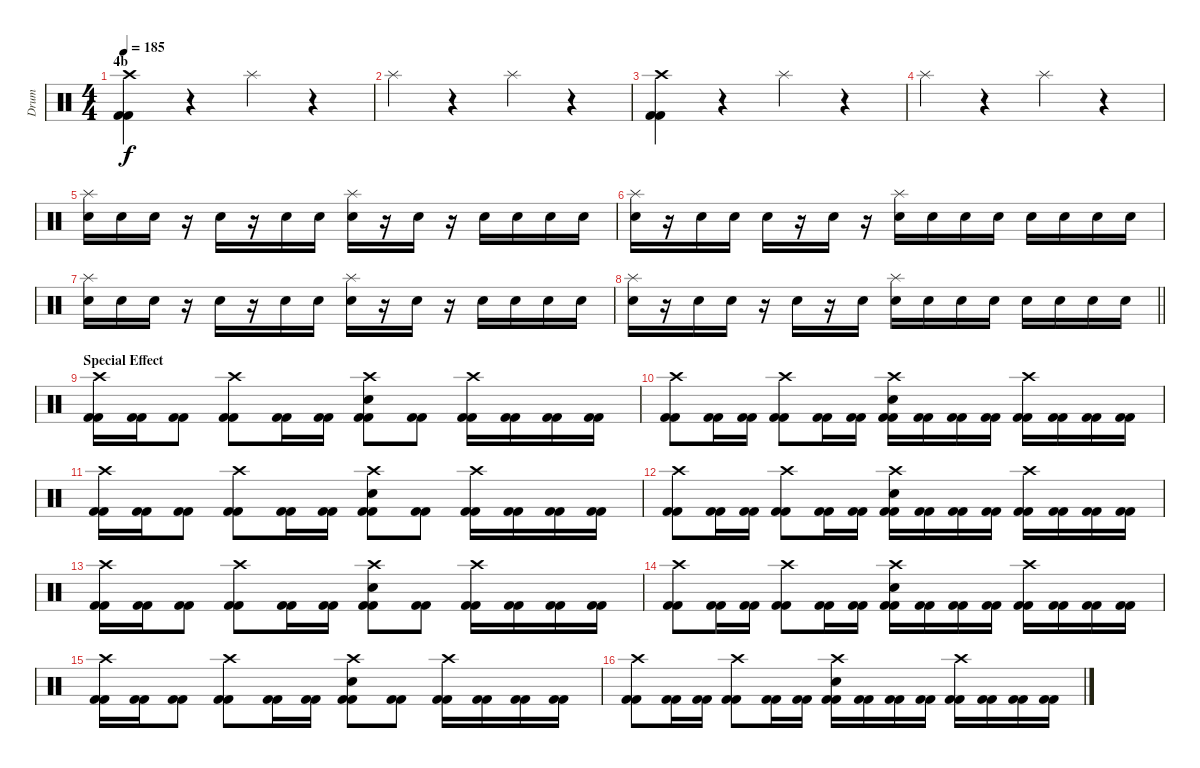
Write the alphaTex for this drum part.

\track ("Drum" "Drum") {instrument percussion}
\staff {score}
\articulation defaults
\ts (4 4)
\section ("" "4b")
\tempo 185
\clef neutral
\ks c
("Crash high (hit)" "Kick (hit) 2" "Kick (hit) 2").4{dy f} r.4 "Splash (hit)".4 r.4 |
"Splash (hit)".4 r.4 "Splash (hit)".4 r.4 |
("Crash high (hit)" "Kick (hit) 2" "Kick (hit) 2").4 r.4 "Splash (hit)".4 r.4 |
"Splash (hit)".4 r.4 "Splash (hit)".4 r.4 |
("Splash (hit)" "Electric Snare (hit)").16{volume 2} "Electric Snare (hit)".16 "Electric Snare (hit)".16 r.16 "Electric Snare (hit)".16 r.16 "Electric Snare (hit)".16 "Electric Snare (hit)".16 ("Splash (hit)" "Electric Snare (hit)").16{volume 4} r.16 "Electric Snare (hit)".16 r.16 "Electric Snare (hit)".16 "Electric Snare (hit)".16 "Electric Snare (hit)".16 "Electric Snare (hit)".16 |
("Splash (hit)" "Electric Snare (hit)").16{volume 6} r.16 "Electric Snare (hit)".16 "Electric Snare (hit)".16 "Electric Snare (hit)".16 r.16 "Electric Snare (hit)".16 r.16 ("Splash (hit)" "Electric Snare (hit)").16{volume 8} "Electric Snare (hit)".16 "Electric Snare (hit)".16 "Electric Snare (hit)".16 "Electric Snare (hit)".16 "Electric Snare (hit)".16 "Electric Snare (hit)".16 "Electric Snare (hit)".16 |
("Splash (hit)" "Electric Snare (hit)").16{volume 9} "Electric Snare (hit)".16 "Electric Snare (hit)".16 r.16 "Electric Snare (hit)".16 r.16 "Electric Snare (hit)".16 "Electric Snare (hit)".16 ("Splash (hit)" "Electric Snare (hit)").16{volume 11} r.16 "Electric Snare (hit)".16 r.16 "Electric Snare (hit)".16 "Electric Snare (hit)".16 "Electric Snare (hit)".16 "Electric Snare (hit)".16 |
\barLineRight lightlight
("Splash (hit)" "Electric Snare (hit)").16{volume 14} r.16 "Electric Snare (hit)".16 "Electric Snare (hit)".16 r.16 "Electric Snare (hit)".16 r.16 "Electric Snare (hit)".16 ("Splash (hit)" "Electric Snare (hit)").16 "Electric Snare (hit)".16 "Electric Snare (hit)".16 "Electric Snare (hit)".16 "Electric Snare (hit)".16 "Electric Snare (hit)".16 "Electric Snare (hit)".16 "Electric Snare (hit)".16 |
\section ("" "Special Effect")
("Crash high (hit)" "Kick (hit) 2" "Kick (hit) 2").16 ("Kick (hit) 2" "Kick (hit) 2").16 ("Kick (hit) 2" "Kick (hit) 2").8 ("Crash high (hit)" "Kick (hit) 2" "Kick (hit) 2").8 ("Kick (hit) 2" "Kick (hit) 2").16 ("Kick (hit) 2" "Kick (hit) 2").16 ("Crash high (hit)" "Electric Snare (hit)" "Kick (hit) 2" "Kick (hit) 2").8 ("Kick (hit) 2" "Kick (hit) 2").8 ("Crash high (hit)" "Kick (hit) 2" "Kick (hit) 2").16 ("Kick (hit) 2" "Kick (hit) 2").16 ("Kick (hit) 2" "Kick (hit) 2").16 ("Kick (hit) 2" "Kick (hit) 2").16 |
("Crash high (hit)" "Kick (hit) 2" "Kick (hit) 2").8 ("Kick (hit) 2" "Kick (hit) 2").16 ("Kick (hit) 2" "Kick (hit) 2").16 ("Crash high (hit)" "Kick (hit) 2" "Kick (hit) 2").8 ("Kick (hit) 2" "Kick (hit) 2").16 ("Kick (hit) 2" "Kick (hit) 2").16 ("Crash high (hit)" "Electric Snare (hit)" "Kick (hit) 2" "Kick (hit) 2").16 ("Kick (hit) 2" "Kick (hit) 2").16 ("Kick (hit) 2" "Kick (hit) 2").16 ("Kick (hit) 2" "Kick (hit) 2").16 ("Crash high (hit)" "Kick (hit) 2" "Kick (hit) 2").16 ("Kick (hit) 2" "Kick (hit) 2").16 ("Kick (hit) 2" "Kick (hit) 2").16 ("Kick (hit) 2" "Kick (hit) 2").16 |
("Crash high (hit)" "Kick (hit) 2" "Kick (hit) 2").16 ("Kick (hit) 2" "Kick (hit) 2").16 ("Kick (hit) 2" "Kick (hit) 2").8 ("Crash high (hit)" "Kick (hit) 2" "Kick (hit) 2").8 ("Kick (hit) 2" "Kick (hit) 2").16 ("Kick (hit) 2" "Kick (hit) 2").16 ("Crash high (hit)" "Electric Snare (hit)" "Kick (hit) 2" "Kick (hit) 2").8 ("Kick (hit) 2" "Kick (hit) 2").8 ("Crash high (hit)" "Kick (hit) 2" "Kick (hit) 2").16 ("Kick (hit) 2" "Kick (hit) 2").16 ("Kick (hit) 2" "Kick (hit) 2").16 ("Kick (hit) 2" "Kick (hit) 2").16 |
("Crash high (hit)" "Kick (hit) 2" "Kick (hit) 2").8 ("Kick (hit) 2" "Kick (hit) 2").16 ("Kick (hit) 2" "Kick (hit) 2").16 ("Crash high (hit)" "Kick (hit) 2" "Kick (hit) 2").8 ("Kick (hit) 2" "Kick (hit) 2").16 ("Kick (hit) 2" "Kick (hit) 2").16 ("Crash high (hit)" "Electric Snare (hit)" "Kick (hit) 2" "Kick (hit) 2").16 ("Kick (hit) 2" "Kick (hit) 2").16 ("Kick (hit) 2" "Kick (hit) 2").16 ("Kick (hit) 2" "Kick (hit) 2").16 ("Crash high (hit)" "Kick (hit) 2" "Kick (hit) 2").16 ("Kick (hit) 2" "Kick (hit) 2").16 ("Kick (hit) 2" "Kick (hit) 2").16 ("Kick (hit) 2" "Kick (hit) 2").16 |
("Crash high (hit)" "Kick (hit) 2" "Kick (hit) 2").16 ("Kick (hit) 2" "Kick (hit) 2").16 ("Kick (hit) 2" "Kick (hit) 2").8 ("Crash high (hit)" "Kick (hit) 2" "Kick (hit) 2").8 ("Kick (hit) 2" "Kick (hit) 2").16 ("Kick (hit) 2" "Kick (hit) 2").16 ("Crash high (hit)" "Electric Snare (hit)" "Kick (hit) 2" "Kick (hit) 2").8 ("Kick (hit) 2" "Kick (hit) 2").8 ("Crash high (hit)" "Kick (hit) 2" "Kick (hit) 2").16 ("Kick (hit) 2" "Kick (hit) 2").16 ("Kick (hit) 2" "Kick (hit) 2").16 ("Kick (hit) 2" "Kick (hit) 2").16 |
("Crash high (hit)" "Kick (hit) 2" "Kick (hit) 2").8 ("Kick (hit) 2" "Kick (hit) 2").16 ("Kick (hit) 2" "Kick (hit) 2").16 ("Crash high (hit)" "Kick (hit) 2" "Kick (hit) 2").8 ("Kick (hit) 2" "Kick (hit) 2").16 ("Kick (hit) 2" "Kick (hit) 2").16 ("Crash high (hit)" "Electric Snare (hit)" "Kick (hit) 2" "Kick (hit) 2").16 ("Kick (hit) 2" "Kick (hit) 2").16 ("Kick (hit) 2" "Kick (hit) 2").16 ("Kick (hit) 2" "Kick (hit) 2").16 ("Crash high (hit)" "Kick (hit) 2" "Kick (hit) 2").16 ("Kick (hit) 2" "Kick (hit) 2").16 ("Kick (hit) 2" "Kick (hit) 2").16 ("Kick (hit) 2" "Kick (hit) 2").16 |
("Crash high (hit)" "Kick (hit) 2" "Kick (hit) 2").16 ("Kick (hit) 2" "Kick (hit) 2").16 ("Kick (hit) 2" "Kick (hit) 2").8 ("Crash high (hit)" "Kick (hit) 2" "Kick (hit) 2").8 ("Kick (hit) 2" "Kick (hit) 2").16 ("Kick (hit) 2" "Kick (hit) 2").16 ("Crash high (hit)" "Electric Snare (hit)" "Kick (hit) 2" "Kick (hit) 2").8 ("Kick (hit) 2" "Kick (hit) 2").8 ("Crash high (hit)" "Kick (hit) 2" "Kick (hit) 2").16 ("Kick (hit) 2" "Kick (hit) 2").16 ("Kick (hit) 2" "Kick (hit) 2").16 ("Kick (hit) 2" "Kick (hit) 2").16 |
("Crash high (hit)" "Kick (hit) 2" "Kick (hit) 2").8 ("Kick (hit) 2" "Kick (hit) 2").16 ("Kick (hit) 2" "Kick (hit) 2").16 ("Crash high (hit)" "Kick (hit) 2" "Kick (hit) 2").8 ("Kick (hit) 2" "Kick (hit) 2").16 ("Kick (hit) 2" "Kick (hit) 2").16 ("Crash high (hit)" "Electric Snare (hit)" "Kick (hit) 2" "Kick (hit) 2").16 ("Kick (hit) 2" "Kick (hit) 2").16 ("Kick (hit) 2" "Kick (hit) 2").16 ("Kick (hit) 2" "Kick (hit) 2").16 ("Crash high (hit)" "Kick (hit) 2" "Kick (hit) 2").16 ("Kick (hit) 2" "Kick (hit) 2").16 ("Kick (hit) 2" "Kick (hit) 2").16 ("Kick (hit) 2" "Kick (hit) 2").16
